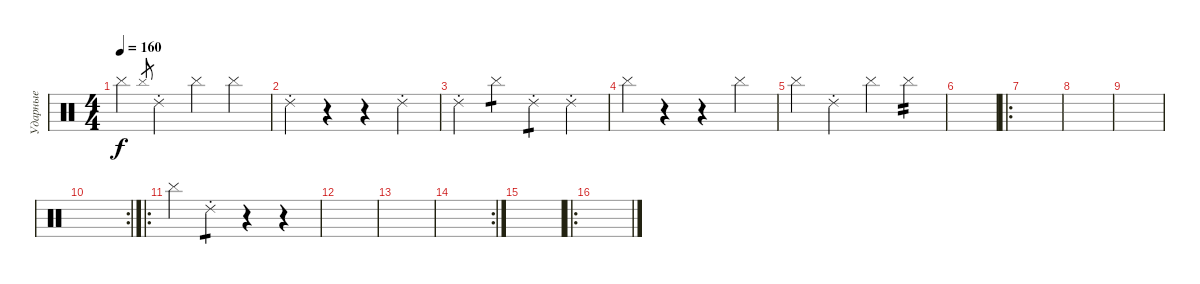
\track ("Ударные" "Ударные") {instrument percussion}
\staff {score}
\articulation defaults
\ts (4 4)
\tempo 160
\clef neutral
\ks c "Cymbal (hit)".4{dy f} "Cymbal (hit)".8{gr} "Ride (choke) 2".4 "Cymbal (hit)".4 "Cymbal (hit)".4
|
"Ride (choke) 2".4 r.4 r.4 "Ride (choke) 2".4 |
"Ride (choke) 2".4 "Cymbal (hit)".4{tp 1} "Ride (choke) 2".4{tp 1} "Ride (choke) 2".4 |
"Cymbal (hit)".4 r.4 r.4 "Cymbal (hit)".4 |
"Cymbal (hit)".4 "Ride (choke) 2".4 "Cymbal (hit)".4 "Cymbal (hit)".4{tp 2} |
|
\ro
|
|
|
\rc 2
|
\ro "Cymbal (hit)".4 "Ride (choke) 2".4{tp 1}
r.4 r.4 |
|
|
\rc 2
|
|
\ro
